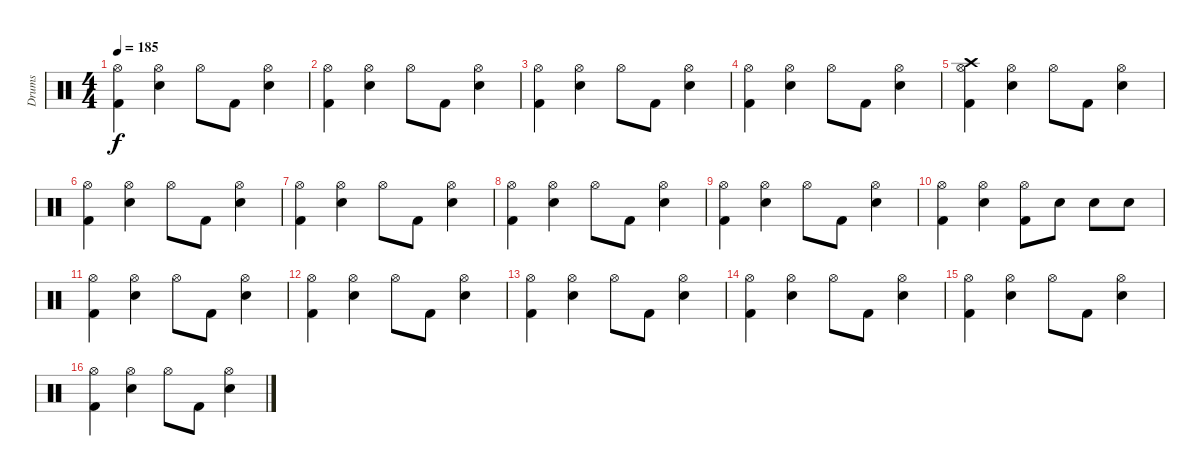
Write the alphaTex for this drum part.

\track ("Drums" "Drums") {instrument percussion}
\staff {score}
\articulation defaults
\ts (4 4)
\tempo 185
\clef neutral
\ks c
("Hi-Hat (open)" "Kick (hit) 2").4{dy f} ("Hi-Hat (open)" "Electric Snare (hit)").4 "Hi-Hat (open)".8 "Kick (hit) 2".8 ("Hi-Hat (open)" "Electric Snare (hit)").4 |
("Hi-Hat (open)" "Kick (hit) 2").4 ("Hi-Hat (open)" "Electric Snare (hit)").4 "Hi-Hat (open)".8 "Kick (hit) 2".8 ("Hi-Hat (open)" "Electric Snare (hit)").4 |
("Hi-Hat (open)" "Kick (hit) 2").4 ("Hi-Hat (open)" "Electric Snare (hit)").4 "Hi-Hat (open)".8 "Kick (hit) 2".8 ("Hi-Hat (open)" "Electric Snare (hit)").4 |
("Hi-Hat (open)" "Kick (hit) 2").4 ("Hi-Hat (open)" "Electric Snare (hit)").4 "Hi-Hat (open)".8 "Kick (hit) 2".8 ("Hi-Hat (open)" "Electric Snare (hit)").4 |
("Hi-Hat (open)" "Crash high (hit)" "Kick (hit) 2").4 ("Hi-Hat (open)" "Electric Snare (hit)").4 "Hi-Hat (open)".8 "Kick (hit) 2".8 ("Hi-Hat (open)" "Electric Snare (hit)").4 |
("Hi-Hat (open)" "Kick (hit) 2").4 ("Hi-Hat (open)" "Electric Snare (hit)").4 "Hi-Hat (open)".8 "Kick (hit) 2".8 ("Hi-Hat (open)" "Electric Snare (hit)").4 |
("Hi-Hat (open)" "Kick (hit) 2").4 ("Hi-Hat (open)" "Electric Snare (hit)").4 "Hi-Hat (open)".8 "Kick (hit) 2".8 ("Hi-Hat (open)" "Electric Snare (hit)").4 |
("Hi-Hat (open)" "Kick (hit) 2").4 ("Hi-Hat (open)" "Electric Snare (hit)").4 "Hi-Hat (open)".8 "Kick (hit) 2".8 ("Hi-Hat (open)" "Electric Snare (hit)").4 |
("Hi-Hat (open)" "Kick (hit) 2").4 ("Hi-Hat (open)" "Electric Snare (hit)").4 "Hi-Hat (open)".8 "Kick (hit) 2".8 ("Hi-Hat (open)" "Electric Snare (hit)").4 |
("Hi-Hat (open)" "Kick (hit) 2").4 ("Hi-Hat (open)" "Electric Snare (hit)").4 ("Hi-Hat (open)" "Kick (hit) 2").8 "Electric Snare (hit)".8 "Electric Snare (hit)".8 "Electric Snare (hit)".8 |
("Hi-Hat (open)" "Kick (hit) 2").4 ("Hi-Hat (open)" "Electric Snare (hit)").4 "Hi-Hat (open)".8 "Kick (hit) 2".8 ("Hi-Hat (open)" "Electric Snare (hit)").4 |
("Hi-Hat (open)" "Kick (hit) 2").4 ("Hi-Hat (open)" "Electric Snare (hit)").4 "Hi-Hat (open)".8 "Kick (hit) 2".8 ("Hi-Hat (open)" "Electric Snare (hit)").4 |
("Hi-Hat (open)" "Kick (hit) 2").4 ("Hi-Hat (open)" "Electric Snare (hit)").4 "Hi-Hat (open)".8 "Kick (hit) 2".8 ("Hi-Hat (open)" "Electric Snare (hit)").4 |
("Hi-Hat (open)" "Kick (hit) 2").4 ("Hi-Hat (open)" "Electric Snare (hit)").4 "Hi-Hat (open)".8 "Kick (hit) 2".8 ("Hi-Hat (open)" "Electric Snare (hit)").4 |
("Hi-Hat (open)" "Kick (hit) 2").4 ("Hi-Hat (open)" "Electric Snare (hit)").4 "Hi-Hat (open)".8 "Kick (hit) 2".8 ("Hi-Hat (open)" "Electric Snare (hit)").4 |
("Hi-Hat (open)" "Kick (hit) 2").4 ("Hi-Hat (open)" "Electric Snare (hit)").4 "Hi-Hat (open)".8 "Kick (hit) 2".8 ("Hi-Hat (open)" "Electric Snare (hit)").4
